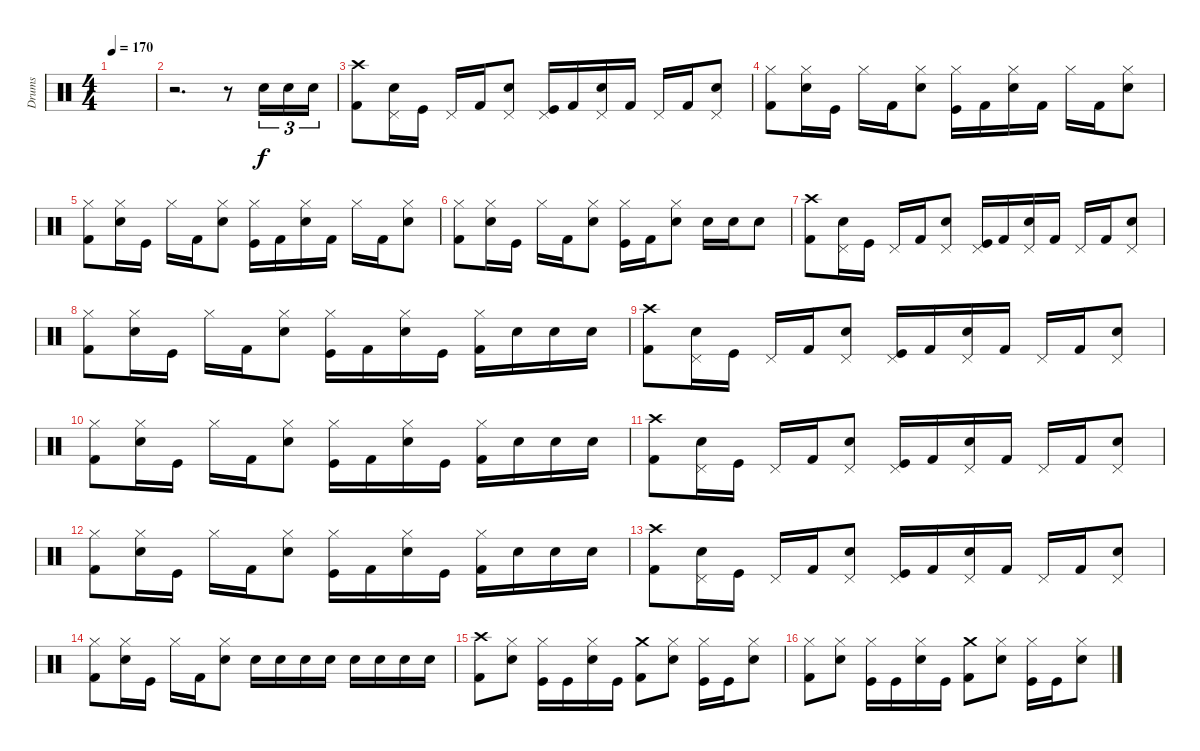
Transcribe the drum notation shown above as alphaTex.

\track ("Drums" "Drums") {instrument percussion}
\staff {score}
\articulation defaults
\ts (4 4)
\tempo 170
\clef neutral
\ks c
|
r.2{d} r.8 "Electric Snare (hit)".16{tu (3 2)} "Electric Snare (hit)".16{tu (3 2)} "Electric Snare (hit)".16{tu (3 2)} |
("Crash high (hit)" "Kick (hit) 2").8 ("Pedal Hi-Hat (hit)" "Electric Snare (hit)").16 "Kick (hit)".16 "Pedal Hi-Hat (hit)".16 "Kick (hit) 2".16 ("Pedal Hi-Hat (hit)" "Electric Snare (hit)").8 ("Pedal Hi-Hat (hit)" "Kick (hit)").16 "Kick (hit) 2".16 ("Pedal Hi-Hat (hit)" "Electric Snare (hit)").16 "Kick (hit) 2".16 "Pedal Hi-Hat (hit)".16 "Kick (hit) 2".16 ("Pedal Hi-Hat (hit)" "Electric Snare (hit)").8 |
("Hi-Hat (closed)" "Kick (hit) 2").8 ("Hi-Hat (closed)" "Electric Snare (hit)").16 "Kick (hit)".16 "Hi-Hat (closed)".16 "Kick (hit) 2".16 ("Hi-Hat (closed)" "Electric Snare (hit)").8 ("Hi-Hat (closed)" "Kick (hit)").16 "Kick (hit) 2".16 ("Hi-Hat (closed)" "Electric Snare (hit)").16 "Kick (hit) 2".16 "Hi-Hat (closed)".16 "Kick (hit) 2".16 ("Hi-Hat (closed)" "Electric Snare (hit)").8 |
("Hi-Hat (closed)" "Kick (hit) 2").8 ("Hi-Hat (closed)" "Electric Snare (hit)").16 "Kick (hit)".16 "Hi-Hat (closed)".16 "Kick (hit) 2".16 ("Hi-Hat (closed)" "Electric Snare (hit)").8 ("Hi-Hat (closed)" "Kick (hit)").16 "Kick (hit) 2".16 ("Hi-Hat (closed)" "Electric Snare (hit)").16 "Kick (hit) 2".16 "Hi-Hat (closed)".16 "Kick (hit) 2".16 ("Hi-Hat (closed)" "Electric Snare (hit)").8 |
("Hi-Hat (closed)" "Kick (hit) 2").8 ("Hi-Hat (closed)" "Electric Snare (hit)").16 "Kick (hit)".16 "Hi-Hat (closed)".16 "Kick (hit) 2".16 ("Hi-Hat (closed)" "Electric Snare (hit)").8 ("Hi-Hat (closed)" "Kick (hit)").16 "Kick (hit) 2".16 ("Hi-Hat (closed)" "Electric Snare (hit)").8 "Electric Snare (hit)".16 "Electric Snare (hit)".16 "Electric Snare (hit)".8 |
("Crash high (hit)" "Kick (hit) 2").8 ("Pedal Hi-Hat (hit)" "Electric Snare (hit)").16 "Kick (hit)".16 "Pedal Hi-Hat (hit)".16 "Kick (hit) 2".16 ("Pedal Hi-Hat (hit)" "Electric Snare (hit)").8 ("Pedal Hi-Hat (hit)" "Kick (hit)").16 "Kick (hit) 2".16 ("Pedal Hi-Hat (hit)" "Electric Snare (hit)").16 "Kick (hit) 2".16 "Pedal Hi-Hat (hit)".16 "Kick (hit) 2".16 ("Pedal Hi-Hat (hit)" "Electric Snare (hit)").8 |
("Hi-Hat (closed)" "Kick (hit) 2").8 ("Hi-Hat (closed)" "Electric Snare (hit)").16 "Kick (hit)".16 "Hi-Hat (closed)".16 "Kick (hit) 2".16 ("Hi-Hat (closed)" "Electric Snare (hit)").8 ("Hi-Hat (closed)" "Kick (hit)").16 "Kick (hit) 2".16 ("Hi-Hat (closed)" "Electric Snare (hit)").16 "Kick (hit)".16 ("Hi-Hat (closed)" "Kick (hit) 2").16 "Electric Snare (hit)".16 "Electric Snare (hit)".16 "Electric Snare (hit)".16 |
("Crash high (hit)" "Kick (hit) 2").8 ("Pedal Hi-Hat (hit)" "Electric Snare (hit)").16 "Kick (hit)".16 "Pedal Hi-Hat (hit)".16 "Kick (hit) 2".16 ("Pedal Hi-Hat (hit)" "Electric Snare (hit)").8 ("Pedal Hi-Hat (hit)" "Kick (hit)").16 "Kick (hit) 2".16 ("Pedal Hi-Hat (hit)" "Electric Snare (hit)").16 "Kick (hit) 2".16 "Pedal Hi-Hat (hit)".16 "Kick (hit) 2".16 ("Pedal Hi-Hat (hit)" "Electric Snare (hit)").8 |
("Hi-Hat (closed)" "Kick (hit) 2").8 ("Hi-Hat (closed)" "Electric Snare (hit)").16 "Kick (hit)".16 "Hi-Hat (closed)".16 "Kick (hit) 2".16 ("Hi-Hat (closed)" "Electric Snare (hit)").8 ("Hi-Hat (closed)" "Kick (hit)").16 "Kick (hit) 2".16 ("Hi-Hat (closed)" "Electric Snare (hit)").16 "Kick (hit)".16 ("Hi-Hat (closed)" "Kick (hit) 2").16 "Electric Snare (hit)".16 "Electric Snare (hit)".16 "Electric Snare (hit)".16 |
("Crash high (hit)" "Kick (hit) 2").8 ("Pedal Hi-Hat (hit)" "Electric Snare (hit)").16 "Kick (hit)".16 "Pedal Hi-Hat (hit)".16 "Kick (hit) 2".16 ("Pedal Hi-Hat (hit)" "Electric Snare (hit)").8 ("Pedal Hi-Hat (hit)" "Kick (hit)").16 "Kick (hit) 2".16 ("Pedal Hi-Hat (hit)" "Electric Snare (hit)").16 "Kick (hit) 2".16 "Pedal Hi-Hat (hit)".16 "Kick (hit) 2".16 ("Pedal Hi-Hat (hit)" "Electric Snare (hit)").8 |
("Hi-Hat (closed)" "Kick (hit) 2").8 ("Hi-Hat (closed)" "Electric Snare (hit)").16 "Kick (hit)".16 "Hi-Hat (closed)".16 "Kick (hit) 2".16 ("Hi-Hat (closed)" "Electric Snare (hit)").8 ("Hi-Hat (closed)" "Kick (hit)").16 "Kick (hit) 2".16 ("Hi-Hat (closed)" "Electric Snare (hit)").16 "Kick (hit)".16 ("Hi-Hat (closed)" "Kick (hit) 2").16 "Electric Snare (hit)".16 "Electric Snare (hit)".16 "Electric Snare (hit)".16 |
("Crash high (hit)" "Kick (hit) 2").8 ("Pedal Hi-Hat (hit)" "Electric Snare (hit)").16 "Kick (hit)".16 "Pedal Hi-Hat (hit)".16 "Kick (hit) 2".16 ("Pedal Hi-Hat (hit)" "Electric Snare (hit)").8 ("Pedal Hi-Hat (hit)" "Kick (hit)").16 "Kick (hit) 2".16 ("Pedal Hi-Hat (hit)" "Electric Snare (hit)").16 "Kick (hit) 2".16 "Pedal Hi-Hat (hit)".16 "Kick (hit) 2".16 ("Pedal Hi-Hat (hit)" "Electric Snare (hit)").8 |
("Hi-Hat (closed)" "Kick (hit) 2").8 ("Hi-Hat (closed)" "Electric Snare (hit)").16 "Kick (hit)".16 "Hi-Hat (closed)".16 "Kick (hit) 2".16 ("Hi-Hat (closed)" "Electric Snare (hit)").8 "Electric Snare (hit)".16 "Electric Snare (hit)".16 "Electric Snare (hit)".16 "Electric Snare (hit)".16 "Electric Snare (hit)".16 "Electric Snare (hit)".16 "Electric Snare (hit)".16 "Electric Snare (hit)".16 |
("Crash high (hit)" "Kick (hit) 2").8 ("Hi-Hat (closed)" "Electric Snare (hit)").8 ("Hi-Hat (closed)" "Kick (hit)").16 "Kick (hit)".16 ("Hi-Hat (closed)" "Electric Snare (hit)").16 "Kick (hit)".16 ("Crash medium (hit)" "Kick (hit) 2").8 ("Hi-Hat (closed)" "Electric Snare (hit)").8 ("Hi-Hat (closed)" "Kick (hit)").16 "Kick (hit)".16 ("Hi-Hat (closed)" "Electric Snare (hit)").8 |
("Hi-Hat (closed)" "Kick (hit) 2").8 ("Hi-Hat (closed)" "Electric Snare (hit)").8 ("Hi-Hat (closed)" "Kick (hit)").16 "Kick (hit)".16 ("Hi-Hat (closed)" "Electric Snare (hit)").16 "Kick (hit)".16 ("Crash medium (hit)" "Kick (hit) 2").8 ("Hi-Hat (closed)" "Electric Snare (hit)").8 ("Hi-Hat (closed)" "Kick (hit)").16 "Kick (hit)".16 ("Hi-Hat (closed)" "Electric Snare (hit)").8
